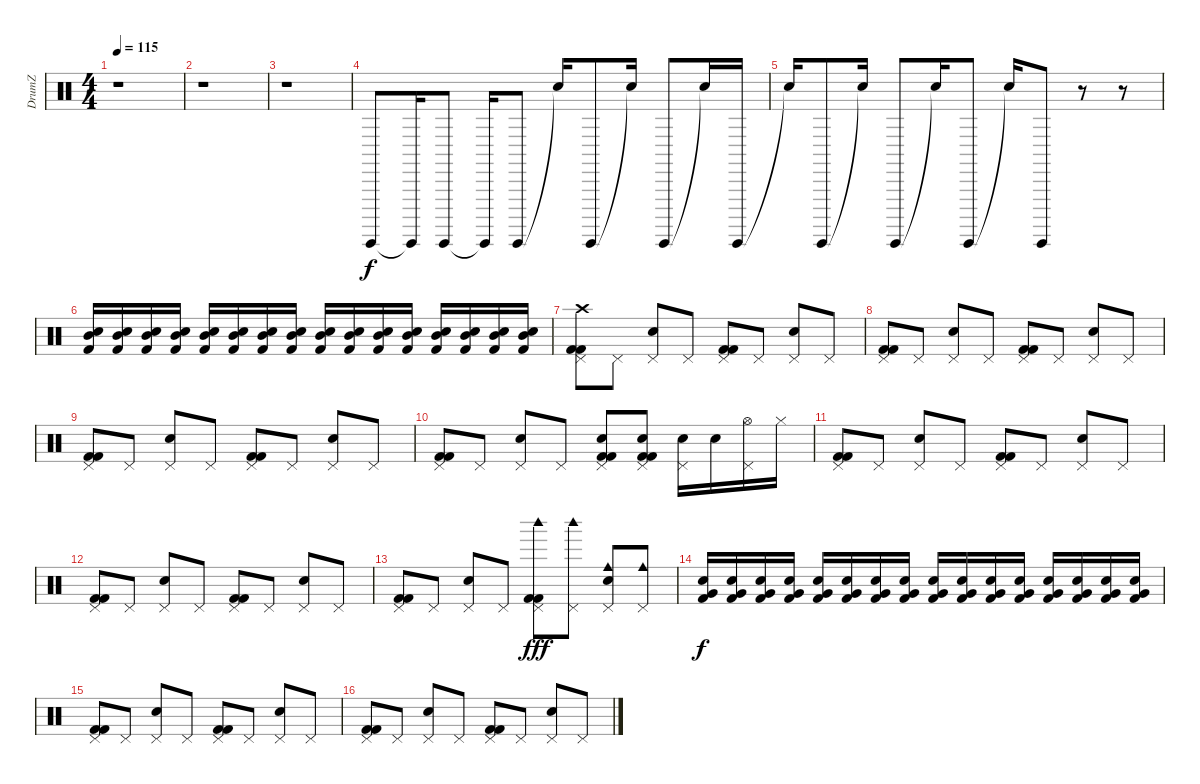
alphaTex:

\track ("DrumZ" "DrumZ") {instrument percussion}
\staff {score}
\articulation defaults
\ts (4 4)
\tempo 115
\clef neutral
\ks c
r.1{dy f} |
r.1 |
r.1 |
"Guiro (hit)".8 "Guiro (hit)"{t}.16 "Guiro (hit)".8 "Guiro (hit)"{t}.16 "Guiro (hit)".8 "Snare (hit)"{t}.16 "Guiro (hit)".8 "Snare (hit)"{t}.16 "Guiro (hit)".8 "Snare (hit)"{t}.16 "Guiro (hit)".16 |
"Snare (hit)"{t}.16 "Guiro (hit)".8 "Snare (hit)"{t}.16 "Guiro (hit)".8 "Snare (hit)"{t}.16 "Guiro (hit)".8 "Snare (hit)"{t}.16 "Guiro (hit)".8 r.8 r.8 |
("Electric Snare (hit)" "Mid Tom (hit)" "Kick (hit) 2").16{volume 5} ("Electric Snare (hit)" "Mid Tom (hit)" "Kick (hit) 2").16{volume 5} ("Electric Snare (hit)" "Mid Tom (hit)" "Kick (hit) 2").16{volume 5} ("Electric Snare (hit)" "Mid Tom (hit)" "Kick (hit) 2").16{volume 5} ("Electric Snare (hit)" "Mid Tom (hit)" "Kick (hit) 2").16{volume 5} ("Electric Snare (hit)" "Mid Tom (hit)" "Kick (hit) 2").16{volume 6} ("Electric Snare (hit)" "Mid Tom (hit)" "Kick (hit) 2").16{volume 7} ("Electric Snare (hit)" "Mid Tom (hit)" "Kick (hit) 2").16{volume 8} ("Electric Snare (hit)" "Mid Tom (hit)" "Kick (hit) 2").16{volume 8} ("Electric Snare (hit)" "Mid Tom (hit)" "Kick (hit) 2").16{volume 9} ("Electric Snare (hit)" "Mid Tom (hit)" "Kick (hit) 2").16{volume 10} ("Electric Snare (hit)" "Mid Tom (hit)" "Kick (hit) 2").16{volume 11} ("Electric Snare (hit)" "Mid Tom (hit)" "Kick (hit) 2").16{volume 11} ("Electric Snare (hit)" "Mid Tom (hit)" "Kick (hit) 2").16{volume 11} ("Electric Snare (hit)" "Mid Tom (hit)" "Kick (hit) 2").16{volume 12} ("Electric Snare (hit)" "Mid Tom (hit)" "Kick (hit) 2").16{volume 12} |
("Pedal Hi-Hat (hit)" "Crash high (hit)" "Kick (hit) 2" "Kick (hit) 2").8 "Pedal Hi-Hat (hit)".8 ("Pedal Hi-Hat (hit)" "Electric Snare (hit)").8 "Pedal Hi-Hat (hit)".8 ("Pedal Hi-Hat (hit)" "Kick (hit) 2" "Kick (hit) 2").8 "Pedal Hi-Hat (hit)".8 ("Pedal Hi-Hat (hit)" "Electric Snare (hit)").8 "Pedal Hi-Hat (hit)".8 |
("Pedal Hi-Hat (hit)" "Kick (hit) 2" "Kick (hit) 2").8 "Pedal Hi-Hat (hit)".8 ("Pedal Hi-Hat (hit)" "Electric Snare (hit)").8 "Pedal Hi-Hat (hit)".8 ("Pedal Hi-Hat (hit)" "Kick (hit) 2" "Kick (hit) 2").8 "Pedal Hi-Hat (hit)".8 ("Pedal Hi-Hat (hit)" "Electric Snare (hit)").8 "Pedal Hi-Hat (hit)".8 |
("Pedal Hi-Hat (hit)" "Kick (hit) 2" "Kick (hit) 2").8 "Pedal Hi-Hat (hit)".8 ("Pedal Hi-Hat (hit)" "Electric Snare (hit)").8 "Pedal Hi-Hat (hit)".8 ("Pedal Hi-Hat (hit)" "Kick (hit) 2" "Kick (hit) 2").8 "Pedal Hi-Hat (hit)".8 ("Pedal Hi-Hat (hit)" "Electric Snare (hit)").8 "Pedal Hi-Hat (hit)".8 |
("Pedal Hi-Hat (hit)" "Kick (hit) 2" "Kick (hit) 2").8 "Pedal Hi-Hat (hit)".8 ("Pedal Hi-Hat (hit)" "Electric Snare (hit)").8 "Pedal Hi-Hat (hit)".8 ("Pedal Hi-Hat (hit)" "Snare (hit) 2" "Kick (hit) 2" "Kick (hit) 2").8 ("Pedal Hi-Hat (hit)" "Snare (hit) 2" "Kick (hit) 2" "Kick (hit) 2").8 ("Pedal Hi-Hat (hit)" "Electric Snare (hit)").16 "Electric Snare (hit)".16 ("Pedal Hi-Hat (hit)" "Hi-Hat (open)").16 "Hi-Hat (closed)".16 |
("Pedal Hi-Hat (hit)" "Kick (hit) 2" "Kick (hit) 2").8 "Pedal Hi-Hat (hit)".8 ("Pedal Hi-Hat (hit)" "Electric Snare (hit)").8 "Pedal Hi-Hat (hit)".8 ("Pedal Hi-Hat (hit)" "Kick (hit) 2" "Kick (hit) 2").8 "Pedal Hi-Hat (hit)".8 ("Pedal Hi-Hat (hit)" "Electric Snare (hit)").8 "Pedal Hi-Hat (hit)".8 |
("Pedal Hi-Hat (hit)" "Kick (hit) 2" "Kick (hit) 2").8 "Pedal Hi-Hat (hit)".8 ("Pedal Hi-Hat (hit)" "Electric Snare (hit)").8 "Pedal Hi-Hat (hit)".8 ("Pedal Hi-Hat (hit)" "Kick (hit) 2" "Kick (hit) 2").8 "Pedal Hi-Hat (hit)".8 ("Pedal Hi-Hat (hit)" "Electric Snare (hit)").8 "Pedal Hi-Hat (hit)".8 |
("Pedal Hi-Hat (hit)" "Kick (hit) 2" "Kick (hit) 2").8 "Pedal Hi-Hat (hit)".8 ("Pedal Hi-Hat (hit)" "Electric Snare (hit)").8 "Pedal Hi-Hat (hit)".8 ("Pedal Hi-Hat (hit)" "Kick (hit) 2" "Kick (hit) 2" "Woodblock high (hit)").8{dy fff} ("Pedal Hi-Hat (hit)" "Woodblock high (hit)").8 ("Pedal Hi-Hat (hit)" "Electric Snare (hit)" "Cowbell medium (hit)").8 ("Pedal Hi-Hat (hit)" "Cowbell medium (hit)").8 |
("Electric Snare (hit)" "Very Low Tom (hit)" "Kick (hit) 2").16{dy f} ("Electric Snare (hit)" "Very Low Tom (hit)" "Kick (hit) 2").16 ("Electric Snare (hit)" "Very Low Tom (hit)" "Kick (hit) 2").16 ("Electric Snare (hit)" "Very Low Tom (hit)" "Kick (hit) 2").16 ("Electric Snare (hit)" "Very Low Tom (hit)" "Kick (hit) 2").16 ("Electric Snare (hit)" "Very Low Tom (hit)" "Kick (hit) 2").16 ("Electric Snare (hit)" "Very Low Tom (hit)" "Kick (hit) 2").16 ("Electric Snare (hit)" "Very Low Tom (hit)" "Kick (hit) 2").16 ("Electric Snare (hit)" "Very Low Tom (hit)" "Kick (hit) 2").16 ("Electric Snare (hit)" "Very Low Tom (hit)" "Kick (hit) 2").16 ("Electric Snare (hit)" "Very Low Tom (hit)" "Kick (hit) 2").16 ("Electric Snare (hit)" "Very Low Tom (hit)" "Kick (hit) 2").16 ("Electric Snare (hit)" "Very Low Tom (hit)" "Kick (hit) 2").16 ("Electric Snare (hit)" "Very Low Tom (hit)" "Kick (hit) 2").16 ("Electric Snare (hit)" "Very Low Tom (hit)" "Kick (hit) 2").16 ("Electric Snare (hit)" "Very Low Tom (hit)" "Kick (hit) 2").16 |
("Pedal Hi-Hat (hit)" "Kick (hit) 2" "Kick (hit) 2").8 "Pedal Hi-Hat (hit)".8 ("Pedal Hi-Hat (hit)" "Electric Snare (hit)").8 "Pedal Hi-Hat (hit)".8 ("Pedal Hi-Hat (hit)" "Kick (hit) 2" "Kick (hit) 2").8 "Pedal Hi-Hat (hit)".8 ("Pedal Hi-Hat (hit)" "Electric Snare (hit)").8 "Pedal Hi-Hat (hit)".8 |
("Pedal Hi-Hat (hit)" "Kick (hit) 2" "Kick (hit) 2").8 "Pedal Hi-Hat (hit)".8 ("Pedal Hi-Hat (hit)" "Electric Snare (hit)").8 "Pedal Hi-Hat (hit)".8 ("Pedal Hi-Hat (hit)" "Kick (hit) 2" "Kick (hit) 2").8 "Pedal Hi-Hat (hit)".8 ("Pedal Hi-Hat (hit)" "Electric Snare (hit)").8 "Pedal Hi-Hat (hit)".8
